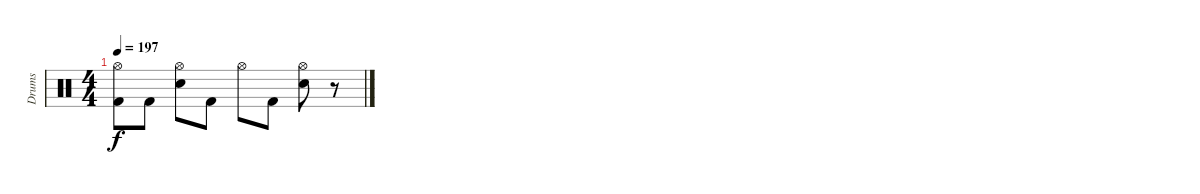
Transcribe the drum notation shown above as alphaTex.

\track ("Drums" "Drums") {instrument percussion}
\staff {score}
\articulation defaults
\ts (4 4)
\tempo 197
\clef neutral
\ks c
("Hi-Hat (open)" "Kick (hit) 2").8{dy f} "Kick (hit) 2".8 ("Hi-Hat (open)" "Snare (hit) 2").8 "Kick (hit) 2".8 "Hi-Hat (open)".8 "Kick (hit) 2".8 ("Hi-Hat (open)" "Snare (hit) 2").8 r.8
